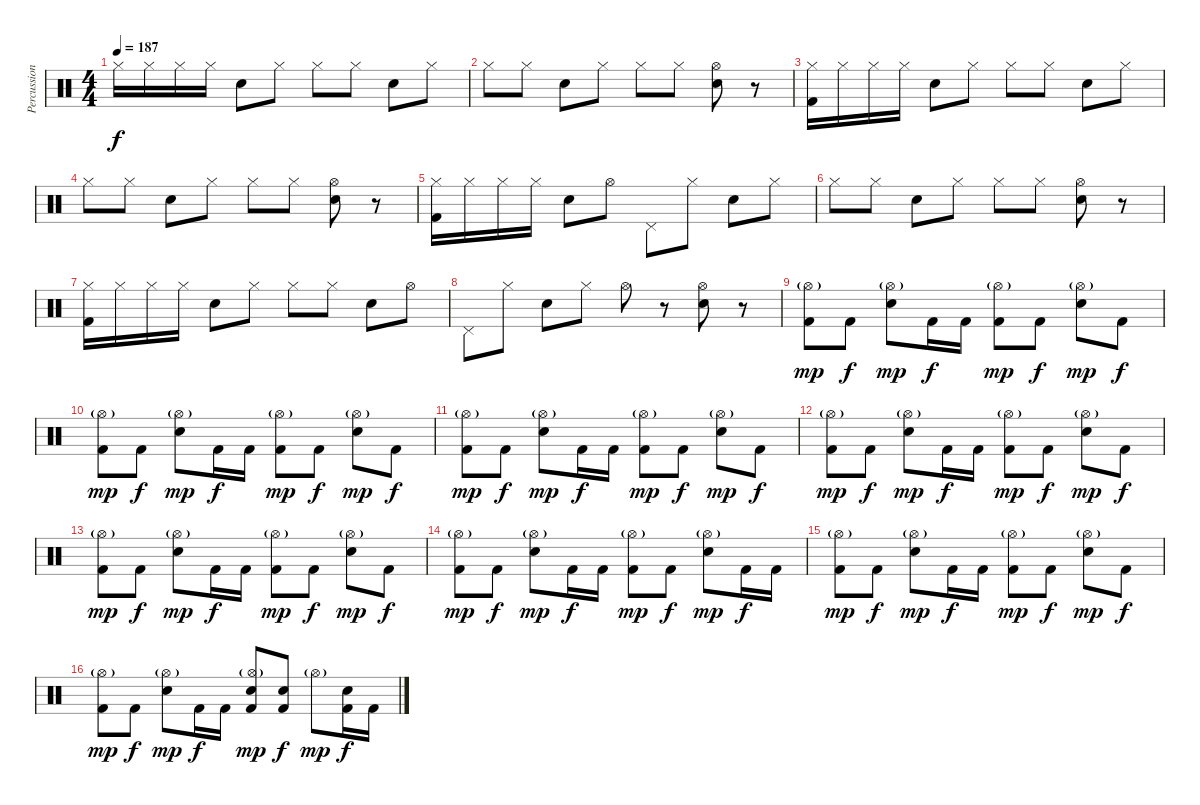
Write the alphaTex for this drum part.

\track ("Percussion" "Percussion") {instrument percussion}
\staff {score}
\articulation defaults
\ts (4 4)
\tempo 187
\clef neutral
\ks c "Hi-Hat (closed)".16{dy f volume 10} "Hi-Hat (closed)".16 "Hi-Hat (closed)".16 "Hi-Hat (closed)".16 "Snare (hit) 2".8 "Hi-Hat (closed)".8 "Hi-Hat (closed)".8 "Hi-Hat (closed)".8 "Snare (hit) 2".8 "Hi-Hat (closed)".8
|
"Hi-Hat (closed)".8 "Hi-Hat (closed)".8 "Snare (hit) 2".8 "Hi-Hat (closed)".8 "Hi-Hat (closed)".8 "Hi-Hat (closed)".8 ("Snare (hit) 2" "Hi-Hat (open)").8 r.8 |
("Hi-Hat (closed)" "Kick (hit) 2").16 "Hi-Hat (closed)".16 "Hi-Hat (closed)".16 "Hi-Hat (closed)".16 "Snare (hit) 2".8 "Hi-Hat (closed)".8 "Hi-Hat (closed)".8 "Hi-Hat (closed)".8 "Snare (hit) 2".8 "Hi-Hat (closed)".8 |
"Hi-Hat (closed)".8 "Hi-Hat (closed)".8 "Snare (hit) 2".8 "Hi-Hat (closed)".8 "Hi-Hat (closed)".8 "Hi-Hat (closed)".8 ("Snare (hit) 2" "Hi-Hat (open)").8 r.8 |
("Hi-Hat (closed)" "Kick (hit) 2").16 "Hi-Hat (closed)".16 "Hi-Hat (closed)".16 "Hi-Hat (closed)".16 "Snare (hit) 2".8 "Hi-Hat (open)".8 "Pedal Hi-Hat (hit)".8 "Hi-Hat (closed)".8 "Snare (hit) 2".8 "Hi-Hat (closed)".8 |
"Hi-Hat (closed)".8 "Hi-Hat (closed)".8 "Snare (hit) 2".8 "Hi-Hat (closed)".8 "Hi-Hat (closed)".8 "Hi-Hat (closed)".8 ("Snare (hit) 2" "Hi-Hat (open)").8 r.8 |
("Hi-Hat (closed)" "Kick (hit) 2").16 "Hi-Hat (closed)".16 "Hi-Hat (closed)".16 "Hi-Hat (closed)".16 "Snare (hit) 2".8 "Hi-Hat (closed)".8 "Hi-Hat (closed)".8 "Hi-Hat (closed)".8 "Snare (hit) 2".8 "Hi-Hat (open)".8 |
"Pedal Hi-Hat (hit)".8 "Hi-Hat (closed)".8 "Snare (hit) 2".8 "Hi-Hat (closed)".8 "Hi-Hat (open)".8 r.8 ("Snare (hit) 2" "Hi-Hat (open)").8 r.8 |
("Kick (hit) 2" "Hi-Hat (open)"{g}).8{dy mp volume 13} "Kick (hit) 2".8{dy f} ("Snare (hit) 2" "Hi-Hat (open)"{g}).8{dy mp} "Kick (hit) 2".16{dy f} "Kick (hit) 2".16 ("Kick (hit) 2" "Hi-Hat (open)"{g}).8{dy mp} "Kick (hit) 2".8{dy f} ("Snare (hit) 2" "Hi-Hat (open)"{g}).8{dy mp} "Kick (hit) 2".8{dy f} |
("Kick (hit) 2" "Hi-Hat (open)"{g}).8{dy mp} "Kick (hit) 2".8{dy f} ("Snare (hit) 2" "Hi-Hat (open)"{g}).8{dy mp} "Kick (hit) 2".16{dy f} "Kick (hit) 2".16 ("Kick (hit) 2" "Hi-Hat (open)"{g}).8{dy mp} "Kick (hit) 2".8{dy f} ("Snare (hit) 2" "Hi-Hat (open)"{g}).8{dy mp} "Kick (hit) 2".8{dy f} |
("Kick (hit) 2" "Hi-Hat (open)"{g}).8{dy mp} "Kick (hit) 2".8{dy f} ("Snare (hit) 2" "Hi-Hat (open)"{g}).8{dy mp} "Kick (hit) 2".16{dy f} "Kick (hit) 2".16 ("Kick (hit) 2" "Hi-Hat (open)"{g}).8{dy mp} "Kick (hit) 2".8{dy f} ("Snare (hit) 2" "Hi-Hat (open)"{g}).8{dy mp} "Kick (hit) 2".8{dy f} |
("Kick (hit) 2" "Hi-Hat (open)"{g}).8{dy mp} "Kick (hit) 2".8{dy f} ("Snare (hit) 2" "Hi-Hat (open)"{g}).8{dy mp} "Kick (hit) 2".16{dy f} "Kick (hit) 2".16 ("Kick (hit) 2" "Hi-Hat (open)"{g}).8{dy mp} "Kick (hit) 2".8{dy f} ("Snare (hit) 2" "Hi-Hat (open)"{g}).8{dy mp} "Kick (hit) 2".8{dy f} |
("Kick (hit) 2" "Hi-Hat (open)"{g}).8{dy mp} "Kick (hit) 2".8{dy f} ("Snare (hit) 2" "Hi-Hat (open)"{g}).8{dy mp} "Kick (hit) 2".16{dy f} "Kick (hit) 2".16 ("Kick (hit) 2" "Hi-Hat (open)"{g}).8{dy mp} "Kick (hit) 2".8{dy f} ("Snare (hit) 2" "Hi-Hat (open)"{g}).8{dy mp} "Kick (hit) 2".8{dy f} |
("Kick (hit) 2" "Hi-Hat (open)"{g}).8{dy mp} "Kick (hit) 2".8{dy f} ("Snare (hit) 2" "Hi-Hat (open)"{g}).8{dy mp} "Kick (hit) 2".16{dy f} "Kick (hit) 2".16 ("Kick (hit) 2" "Hi-Hat (open)"{g}).8{dy mp} "Kick (hit) 2".8{dy f} ("Snare (hit) 2" "Hi-Hat (open)"{g}).8{dy mp} "Kick (hit) 2".16{dy f} "Kick (hit) 2".16 |
("Kick (hit) 2" "Hi-Hat (open)"{g}).8{dy mp} "Kick (hit) 2".8{dy f} ("Snare (hit) 2" "Hi-Hat (open)"{g}).8{dy mp} "Kick (hit) 2".16{dy f} "Kick (hit) 2".16 ("Kick (hit) 2" "Hi-Hat (open)"{g}).8{dy mp} "Kick (hit) 2".8{dy f} ("Snare (hit) 2" "Hi-Hat (open)"{g}).8{dy mp} "Kick (hit) 2".8{dy f} |
("Kick (hit) 2" "Hi-Hat (open)"{g}).8{dy mp} "Kick (hit) 2".8{dy f} ("Snare (hit) 2" "Hi-Hat (open)"{g}).8{dy mp} "Kick (hit) 2".16{dy f} "Kick (hit) 2".16 ("Kick (hit) 2" "Hi-Hat (open)"{g} "Snare (hit) 2").8{dy mp} ("Kick (hit) 2" "Snare (hit) 2").8{dy f} "Hi-Hat (open)"{g}.8{dy mp} ("Kick (hit) 2" "Snare (hit) 2").16{dy f} "Kick (hit) 2".16
